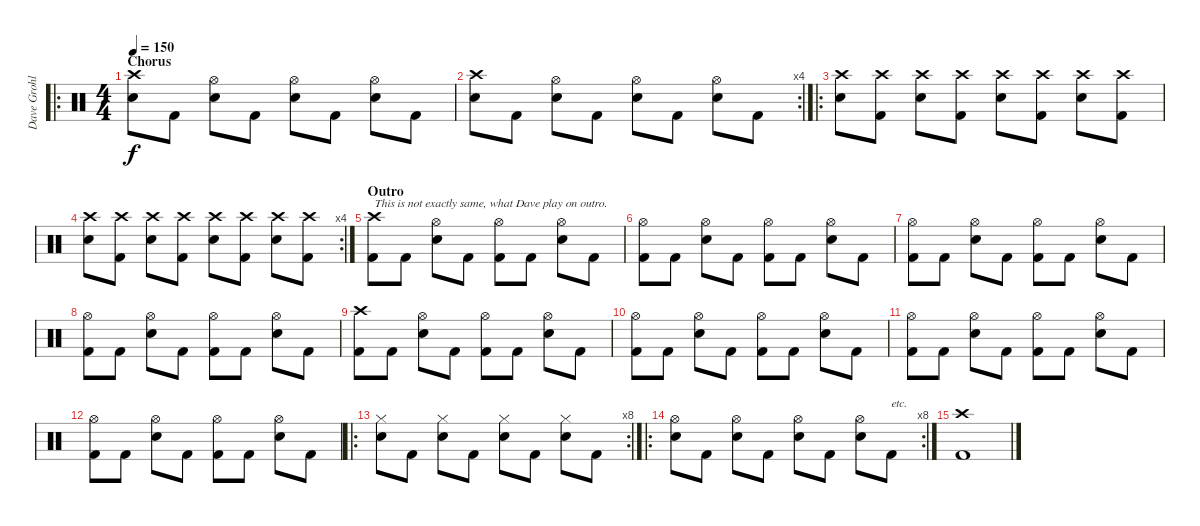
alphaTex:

\track ("Dave Grohl" "Dave Grohl") {instrument percussion}
\staff {score}
\articulation defaults
\ro
\ts (4 4)
\section ("" "Chorus")
\tempo 150
\clef neutral
\ks c
("Crash high (hit)" "Electric Snare (hit)").8{dy f} "Kick (hit) 2".8 ("Hi-Hat (open)" "Electric Snare (hit)").8 "Kick (hit) 2".8 ("Hi-Hat (open)" "Electric Snare (hit)").8 "Kick (hit) 2".8 ("Hi-Hat (open)" "Electric Snare (hit)").8 "Kick (hit) 2".8 |
\rc 4
("Crash high (hit)" "Electric Snare (hit)").8 "Kick (hit) 2".8 ("Hi-Hat (open)" "Electric Snare (hit)").8 "Kick (hit) 2".8 ("Hi-Hat (open)" "Electric Snare (hit)").8 "Kick (hit) 2".8 ("Hi-Hat (open)" "Electric Snare (hit)").8 "Kick (hit) 2".8 |
\ro
("Crash high (hit)" "Electric Snare (hit)").8 ("Crash high (hit)" "Kick (hit) 2").8 ("Crash high (hit)" "Electric Snare (hit)").8 ("Crash high (hit)" "Kick (hit) 2").8 ("Crash high (hit)" "Electric Snare (hit)").8 ("Crash high (hit)" "Kick (hit) 2").8 ("Crash high (hit)" "Electric Snare (hit)").8 ("Crash high (hit)" "Kick (hit) 2").8 |
\rc 4
("Crash high (hit)" "Electric Snare (hit)").8 ("Crash high (hit)" "Kick (hit) 2").8 ("Crash high (hit)" "Electric Snare (hit)").8 ("Crash high (hit)" "Kick (hit) 2").8 ("Crash high (hit)" "Electric Snare (hit)").8 ("Crash high (hit)" "Kick (hit) 2").8 ("Crash high (hit)" "Electric Snare (hit)").8 ("Crash high (hit)" "Kick (hit) 2").8 |
\section ("" "Outro")
("Crash high (hit)" "Kick (hit) 2").8{txt "This is not exactly same, what Dave play on outro."} "Kick (hit) 2".8 ("Hi-Hat (open)" "Electric Snare (hit)").8 "Kick (hit) 2".8 ("Hi-Hat (open)" "Kick (hit) 2").8 "Kick (hit) 2".8 ("Hi-Hat (open)" "Electric Snare (hit)").8 "Kick (hit) 2".8 |
("Hi-Hat (open)" "Kick (hit) 2").8 "Kick (hit) 2".8 ("Hi-Hat (open)" "Electric Snare (hit)").8 "Kick (hit) 2".8 ("Hi-Hat (open)" "Kick (hit) 2").8 "Kick (hit) 2".8 ("Hi-Hat (open)" "Electric Snare (hit)").8 "Kick (hit) 2".8 |
("Hi-Hat (open)" "Kick (hit) 2").8 "Kick (hit) 2".8 ("Hi-Hat (open)" "Electric Snare (hit)").8 "Kick (hit) 2".8 ("Hi-Hat (open)" "Kick (hit) 2").8 "Kick (hit) 2".8 ("Hi-Hat (open)" "Electric Snare (hit)").8 "Kick (hit) 2".8 |
("Hi-Hat (open)" "Kick (hit) 2").8 "Kick (hit) 2".8 ("Hi-Hat (open)" "Electric Snare (hit)").8 "Kick (hit) 2".8 ("Hi-Hat (open)" "Kick (hit) 2").8 "Kick (hit) 2".8 ("Hi-Hat (open)" "Electric Snare (hit)").8 "Kick (hit) 2".8 |
("Crash high (hit)" "Kick (hit) 2").8 "Kick (hit) 2".8 ("Hi-Hat (open)" "Electric Snare (hit)").8 "Kick (hit) 2".8 ("Hi-Hat (open)" "Kick (hit) 2").8 "Kick (hit) 2".8 ("Hi-Hat (open)" "Electric Snare (hit)").8 "Kick (hit) 2".8 |
("Hi-Hat (open)" "Kick (hit) 2").8 "Kick (hit) 2".8 ("Hi-Hat (open)" "Electric Snare (hit)").8 "Kick (hit) 2".8 ("Hi-Hat (open)" "Kick (hit) 2").8 "Kick (hit) 2".8 ("Hi-Hat (open)" "Electric Snare (hit)").8 "Kick (hit) 2".8 |
("Hi-Hat (open)" "Kick (hit) 2").8 "Kick (hit) 2".8 ("Hi-Hat (open)" "Electric Snare (hit)").8 "Kick (hit) 2".8 ("Hi-Hat (open)" "Kick (hit) 2").8 "Kick (hit) 2".8 ("Hi-Hat (open)" "Electric Snare (hit)").8 "Kick (hit) 2".8 |
("Hi-Hat (open)" "Kick (hit) 2").8 "Kick (hit) 2".8 ("Hi-Hat (open)" "Electric Snare (hit)").8 "Kick (hit) 2".8 ("Hi-Hat (open)" "Kick (hit) 2").8 "Kick (hit) 2".8 ("Hi-Hat (open)" "Electric Snare (hit)").8 "Kick (hit) 2".8 |
\ro
\rc 8
("Hi-Hat (closed)" "Electric Snare (hit)").8 "Kick (hit) 2".8 ("Hi-Hat (closed)" "Electric Snare (hit)").8 "Kick (hit) 2".8 ("Hi-Hat (closed)" "Electric Snare (hit)").8 "Kick (hit) 2".8 ("Hi-Hat (closed)" "Electric Snare (hit)").8 "Kick (hit) 2".8 |
\ro
\rc 8
("Hi-Hat (open)" "Electric Snare (hit)").8 "Kick (hit) 2".8 ("Hi-Hat (open)" "Electric Snare (hit)").8 "Kick (hit) 2".8 ("Hi-Hat (open)" "Electric Snare (hit)").8 "Kick (hit) 2".8 ("Hi-Hat (open)" "Electric Snare (hit)").8 "Kick (hit) 2".8{txt "etc."} |
("Crash high (hit)" "Kick (hit) 2").1
